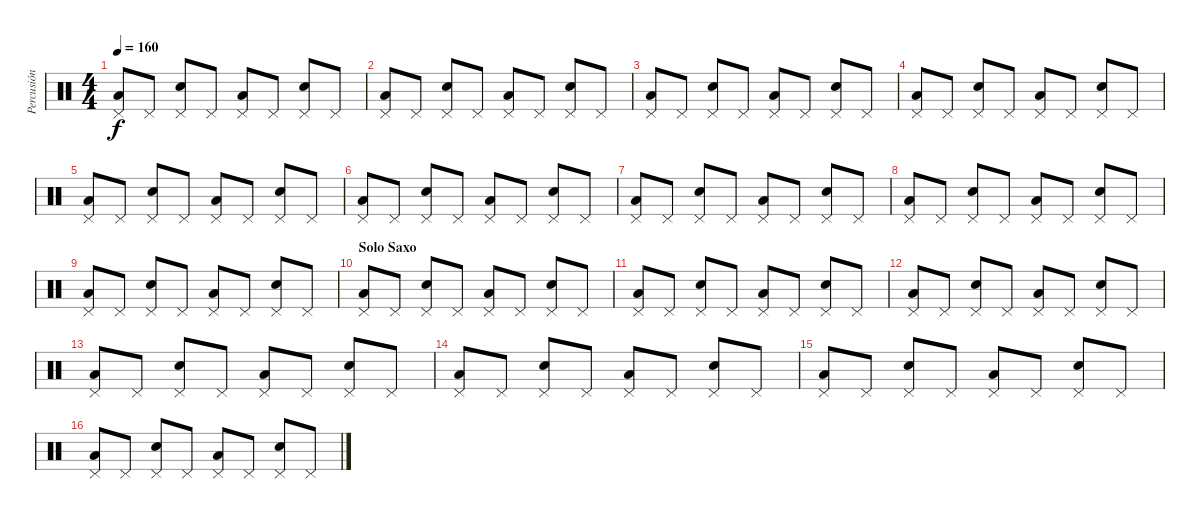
\track ("Percusión" "Percusión") {instrument percussion}
\staff {score}
\articulation defaults
\ts (4 4)
\tempo 160
\clef neutral
\ks c
("Pedal Hi-Hat (hit)" "Low Floor Tom (hit)").8{dy f} "Pedal Hi-Hat (hit)".8 ("Pedal Hi-Hat (hit)" "Snare (hit) 2").8 "Pedal Hi-Hat (hit)".8 ("Pedal Hi-Hat (hit)" "Low Floor Tom (hit)").8 "Pedal Hi-Hat (hit)".8 ("Pedal Hi-Hat (hit)" "Snare (hit) 2").8 "Pedal Hi-Hat (hit)".8 |
("Pedal Hi-Hat (hit)" "Low Floor Tom (hit)").8 "Pedal Hi-Hat (hit)".8 ("Pedal Hi-Hat (hit)" "Snare (hit) 2").8 "Pedal Hi-Hat (hit)".8 ("Pedal Hi-Hat (hit)" "Low Floor Tom (hit)").8 "Pedal Hi-Hat (hit)".8 ("Pedal Hi-Hat (hit)" "Snare (hit) 2").8 "Pedal Hi-Hat (hit)".8 |
("Pedal Hi-Hat (hit)" "Low Floor Tom (hit)").8 "Pedal Hi-Hat (hit)".8 ("Pedal Hi-Hat (hit)" "Snare (hit) 2").8 "Pedal Hi-Hat (hit)".8 ("Pedal Hi-Hat (hit)" "Low Floor Tom (hit)").8 "Pedal Hi-Hat (hit)".8 ("Pedal Hi-Hat (hit)" "Snare (hit) 2").8 "Pedal Hi-Hat (hit)".8 |
("Pedal Hi-Hat (hit)" "Low Floor Tom (hit)").8 "Pedal Hi-Hat (hit)".8 ("Pedal Hi-Hat (hit)" "Snare (hit) 2").8 "Pedal Hi-Hat (hit)".8 ("Pedal Hi-Hat (hit)" "Low Floor Tom (hit)").8 "Pedal Hi-Hat (hit)".8 ("Pedal Hi-Hat (hit)" "Snare (hit) 2").8 "Pedal Hi-Hat (hit)".8 |
("Pedal Hi-Hat (hit)" "Low Floor Tom (hit)").8 "Pedal Hi-Hat (hit)".8 ("Pedal Hi-Hat (hit)" "Snare (hit) 2").8 "Pedal Hi-Hat (hit)".8 ("Pedal Hi-Hat (hit)" "Low Floor Tom (hit)").8 "Pedal Hi-Hat (hit)".8 ("Pedal Hi-Hat (hit)" "Snare (hit) 2").8 "Pedal Hi-Hat (hit)".8 |
("Pedal Hi-Hat (hit)" "Low Floor Tom (hit)").8 "Pedal Hi-Hat (hit)".8 ("Pedal Hi-Hat (hit)" "Snare (hit) 2").8 "Pedal Hi-Hat (hit)".8 ("Pedal Hi-Hat (hit)" "Low Floor Tom (hit)").8 "Pedal Hi-Hat (hit)".8 ("Pedal Hi-Hat (hit)" "Snare (hit) 2").8 "Pedal Hi-Hat (hit)".8 |
("Pedal Hi-Hat (hit)" "Low Floor Tom (hit)").8 "Pedal Hi-Hat (hit)".8 ("Pedal Hi-Hat (hit)" "Snare (hit) 2").8 "Pedal Hi-Hat (hit)".8 ("Pedal Hi-Hat (hit)" "Low Floor Tom (hit)").8 "Pedal Hi-Hat (hit)".8 ("Pedal Hi-Hat (hit)" "Snare (hit) 2").8 "Pedal Hi-Hat (hit)".8 |
("Pedal Hi-Hat (hit)" "Low Floor Tom (hit)").8 "Pedal Hi-Hat (hit)".8 ("Pedal Hi-Hat (hit)" "Snare (hit) 2").8 "Pedal Hi-Hat (hit)".8 ("Pedal Hi-Hat (hit)" "Low Floor Tom (hit)").8 "Pedal Hi-Hat (hit)".8 ("Pedal Hi-Hat (hit)" "Snare (hit) 2").8 "Pedal Hi-Hat (hit)".8 |
("Pedal Hi-Hat (hit)" "Low Floor Tom (hit)").8 "Pedal Hi-Hat (hit)".8 ("Pedal Hi-Hat (hit)" "Snare (hit) 2").8 "Pedal Hi-Hat (hit)".8 ("Pedal Hi-Hat (hit)" "Low Floor Tom (hit)").8 "Pedal Hi-Hat (hit)".8 ("Pedal Hi-Hat (hit)" "Snare (hit) 2").8 "Pedal Hi-Hat (hit)".8 |
\section ("" "Solo Saxo")
("Pedal Hi-Hat (hit)" "Low Floor Tom (hit)").8 "Pedal Hi-Hat (hit)".8 ("Pedal Hi-Hat (hit)" "Snare (hit) 2").8 "Pedal Hi-Hat (hit)".8 ("Pedal Hi-Hat (hit)" "Low Floor Tom (hit)").8 "Pedal Hi-Hat (hit)".8 ("Pedal Hi-Hat (hit)" "Snare (hit) 2").8 "Pedal Hi-Hat (hit)".8 |
("Pedal Hi-Hat (hit)" "Low Floor Tom (hit)").8 "Pedal Hi-Hat (hit)".8 ("Pedal Hi-Hat (hit)" "Snare (hit) 2").8 "Pedal Hi-Hat (hit)".8 ("Pedal Hi-Hat (hit)" "Low Floor Tom (hit)").8 "Pedal Hi-Hat (hit)".8 ("Pedal Hi-Hat (hit)" "Snare (hit) 2").8 "Pedal Hi-Hat (hit)".8 |
("Pedal Hi-Hat (hit)" "Low Floor Tom (hit)").8 "Pedal Hi-Hat (hit)".8 ("Pedal Hi-Hat (hit)" "Snare (hit) 2").8 "Pedal Hi-Hat (hit)".8 ("Pedal Hi-Hat (hit)" "Low Floor Tom (hit)").8 "Pedal Hi-Hat (hit)".8 ("Pedal Hi-Hat (hit)" "Snare (hit) 2").8 "Pedal Hi-Hat (hit)".8 |
("Pedal Hi-Hat (hit)" "Low Floor Tom (hit)").8 "Pedal Hi-Hat (hit)".8 ("Pedal Hi-Hat (hit)" "Snare (hit) 2").8 "Pedal Hi-Hat (hit)".8 ("Pedal Hi-Hat (hit)" "Low Floor Tom (hit)").8 "Pedal Hi-Hat (hit)".8 ("Pedal Hi-Hat (hit)" "Snare (hit) 2").8 "Pedal Hi-Hat (hit)".8 |
("Pedal Hi-Hat (hit)" "Low Floor Tom (hit)").8 "Pedal Hi-Hat (hit)".8 ("Pedal Hi-Hat (hit)" "Snare (hit) 2").8 "Pedal Hi-Hat (hit)".8 ("Pedal Hi-Hat (hit)" "Low Floor Tom (hit)").8 "Pedal Hi-Hat (hit)".8 ("Pedal Hi-Hat (hit)" "Snare (hit) 2").8 "Pedal Hi-Hat (hit)".8 |
("Pedal Hi-Hat (hit)" "Low Floor Tom (hit)").8 "Pedal Hi-Hat (hit)".8 ("Pedal Hi-Hat (hit)" "Snare (hit) 2").8 "Pedal Hi-Hat (hit)".8 ("Pedal Hi-Hat (hit)" "Low Floor Tom (hit)").8 "Pedal Hi-Hat (hit)".8 ("Pedal Hi-Hat (hit)" "Snare (hit) 2").8 "Pedal Hi-Hat (hit)".8 |
("Pedal Hi-Hat (hit)" "Low Floor Tom (hit)").8 "Pedal Hi-Hat (hit)".8 ("Pedal Hi-Hat (hit)" "Snare (hit) 2").8 "Pedal Hi-Hat (hit)".8 ("Pedal Hi-Hat (hit)" "Low Floor Tom (hit)").8 "Pedal Hi-Hat (hit)".8 ("Pedal Hi-Hat (hit)" "Snare (hit) 2").8 "Pedal Hi-Hat (hit)".8
